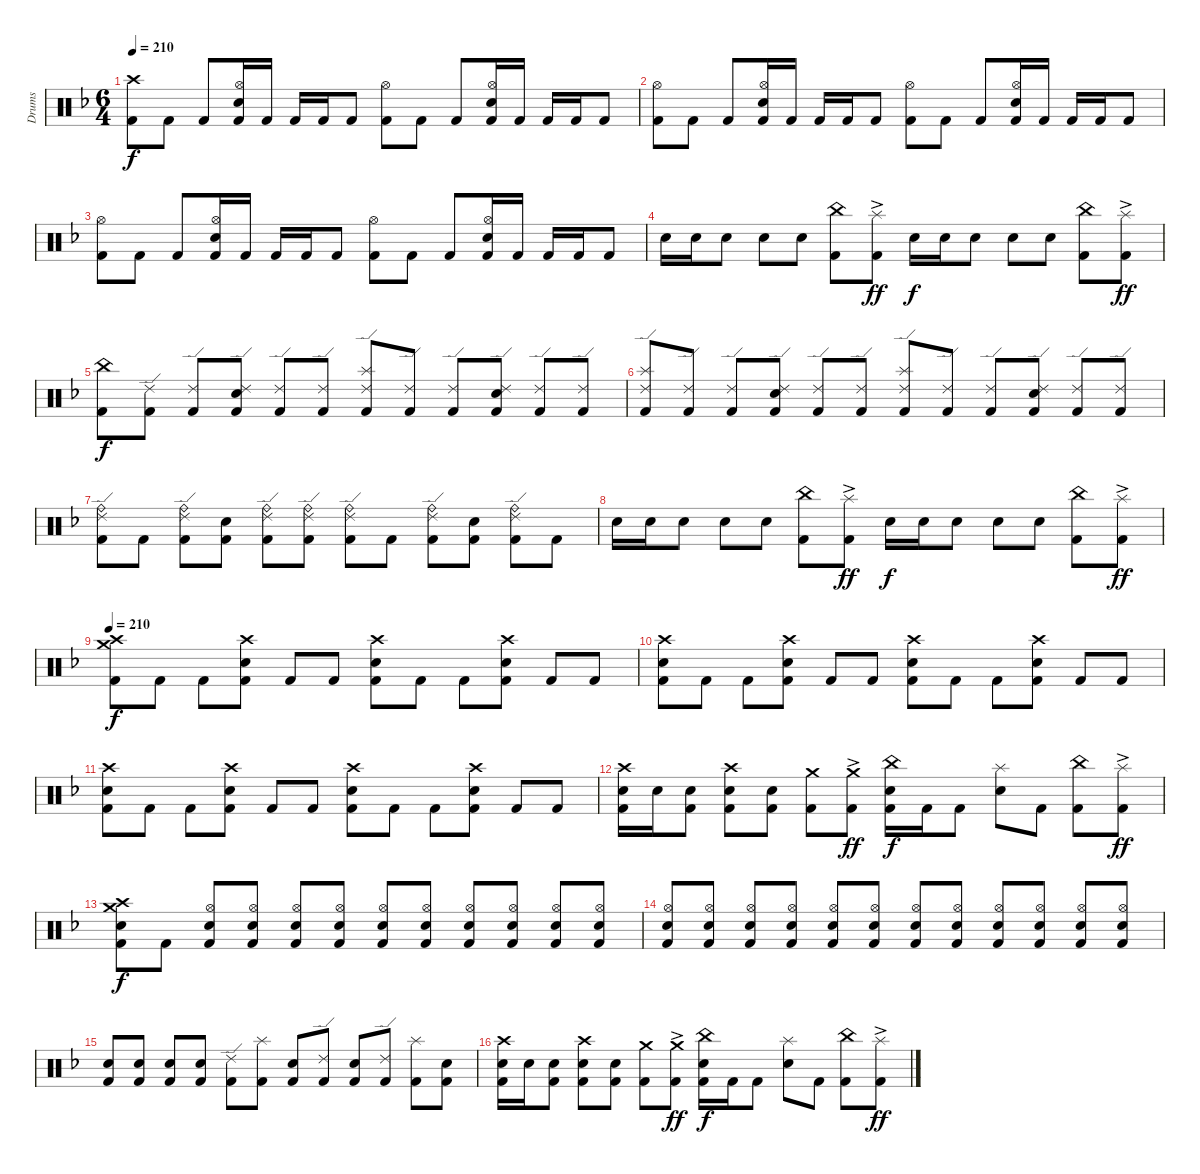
\track ("Drums" "Drums") {instrument percussion}
\staff {score}
\articulation defaults
\ts (6 4)
\tempo 210
\clef neutral
\ks f
("Crash high (hit)" "Kick (hit) 2").8{dy f} "Kick (hit) 2".8 "Kick (hit) 2".8 ("Hi-Hat (open)" "Electric Snare (hit)" "Kick (hit) 2").16 "Kick (hit) 2".16 "Kick (hit) 2".16 "Kick (hit) 2".16 "Kick (hit) 2".8 ("Hi-Hat (open)" "Kick (hit) 2").8 "Kick (hit) 2".8 "Kick (hit) 2".8 ("Hi-Hat (open)" "Electric Snare (hit)" "Kick (hit) 2").16 "Kick (hit) 2".16 "Kick (hit) 2".16 "Kick (hit) 2".16 "Kick (hit) 2".8 |
("Hi-Hat (open)" "Kick (hit) 2").8 "Kick (hit) 2".8 "Kick (hit) 2".8 ("Hi-Hat (open)" "Electric Snare (hit)" "Kick (hit) 2").16 "Kick (hit) 2".16 "Kick (hit) 2".16 "Kick (hit) 2".16 "Kick (hit) 2".8 ("Hi-Hat (open)" "Kick (hit) 2").8 "Kick (hit) 2".8 "Kick (hit) 2".8 ("Hi-Hat (open)" "Electric Snare (hit)" "Kick (hit) 2").16 "Kick (hit) 2".16 "Kick (hit) 2".16 "Kick (hit) 2".16 "Kick (hit) 2".8 |
("Hi-Hat (open)" "Kick (hit) 2").8 "Kick (hit) 2".8 "Kick (hit) 2".8 ("Hi-Hat (open)" "Electric Snare (hit)" "Kick (hit) 2").16 "Kick (hit) 2".16 "Kick (hit) 2".16 "Kick (hit) 2".16 "Kick (hit) 2".8 ("Hi-Hat (open)" "Kick (hit) 2").8 "Kick (hit) 2".8 "Kick (hit) 2".8 ("Hi-Hat (open)" "Electric Snare (hit)" "Kick (hit) 2").16 "Kick (hit) 2".16 "Kick (hit) 2".16 "Kick (hit) 2".16 "Kick (hit) 2".8 |
"Electric Snare (hit)".16 "Electric Snare (hit)".16 "Electric Snare (hit)".8 "Electric Snare (hit)".8 "Electric Snare (hit)".8 ("China (hit)" "Kick (hit) 2").8 ("Splash (hit)"{ac} "Kick (hit) 2").8{dy ff} "Electric Snare (hit)".16{dy f} "Electric Snare (hit)".16 "Electric Snare (hit)".8 "Electric Snare (hit)".8 "Electric Snare (hit)".8 ("China (hit)" "Kick (hit) 2").8 ("Splash (hit)"{ac} "Kick (hit) 2").8{dy ff} |
("China (hit)" "Kick (hit) 2").8{dy f} ("Ride (edge) 2" "Kick (hit) 2").8 ("Ride (edge) 2" "Kick (hit) 2").8 ("Ride (edge) 2" "Electric Snare (hit)" "Kick (hit) 2").8 ("Ride (edge) 2" "Kick (hit) 2").8 ("Ride (edge) 2" "Kick (hit) 2").8 ("Splash (hit)" "Ride (edge) 2" "Kick (hit) 2").8 ("Ride (edge) 2" "Kick (hit) 2").8 ("Ride (edge) 2" "Kick (hit) 2").8 ("Ride (edge) 2" "Electric Snare (hit)" "Kick (hit) 2").8 ("Ride (edge) 2" "Kick (hit) 2").8 ("Ride (edge) 2" "Kick (hit) 2").8 |
("Splash (hit)" "Ride (edge) 2" "Kick (hit) 2").8 ("Ride (edge) 2" "Kick (hit) 2").8 ("Ride (edge) 2" "Kick (hit) 2").8 ("Ride (edge) 2" "Electric Snare (hit)" "Kick (hit) 2").8 ("Ride (edge) 2" "Kick (hit) 2").8 ("Ride (edge) 2" "Kick (hit) 2").8 ("Splash (hit)" "Ride (edge) 2" "Kick (hit) 2").8 ("Ride (edge) 2" "Kick (hit) 2").8 ("Ride (edge) 2" "Kick (hit) 2").8 ("Ride (edge) 2" "Electric Snare (hit)" "Kick (hit) 2").8 ("Ride (edge) 2" "Kick (hit) 2").8 ("Ride (edge) 2" "Kick (hit) 2").8 |
("Ride (edge) 2" "Ride (bell)" "Kick (hit) 2").8 "Kick (hit) 2".8 ("Ride (edge) 2" "Ride (bell)" "Kick (hit) 2").8 ("Electric Snare (hit)" "Kick (hit) 2").8 ("Ride (edge) 2" "Ride (bell)" "Kick (hit) 2").8 ("Ride (edge) 2" "Ride (bell)" "Kick (hit) 2").8 ("Ride (edge) 2" "Ride (bell)" "Kick (hit) 2").8 "Kick (hit) 2".8 ("Ride (edge) 2" "Ride (bell)" "Kick (hit) 2").8 ("Electric Snare (hit)" "Kick (hit) 2").8 ("Ride (edge) 2" "Ride (bell)" "Kick (hit) 2").8 "Kick (hit) 2".8 |
"Electric Snare (hit)".16 "Electric Snare (hit)".16 "Electric Snare (hit)".8 "Electric Snare (hit)".8 "Electric Snare (hit)".8 ("China (hit)" "Kick (hit) 2").8 ("Splash (hit)"{ac} "Kick (hit) 2").8{dy ff} "Electric Snare (hit)".16{dy f} "Electric Snare (hit)".16 "Electric Snare (hit)".8 "Electric Snare (hit)".8 "Electric Snare (hit)".8 ("China (hit)" "Kick (hit) 2").8 ("Splash (hit)"{ac} "Kick (hit) 2").8{dy ff} |
\tempo 210
("Crash high (hit)" "Crash medium (hit)" "Kick (hit) 2").8{dy f} "Kick (hit) 2".8 "Kick (hit) 2".8 ("Crash high (hit)" "Electric Snare (hit)" "Kick (hit) 2").8 "Kick (hit) 2".8 "Kick (hit) 2".8 ("Crash high (hit)" "Electric Snare (hit)" "Kick (hit) 2").8 "Kick (hit) 2".8 "Kick (hit) 2".8 ("Crash high (hit)" "Electric Snare (hit)" "Kick (hit) 2").8 "Kick (hit) 2".8 "Kick (hit) 2".8 |
("Crash high (hit)" "Electric Snare (hit)" "Kick (hit) 2").8 "Kick (hit) 2".8 "Kick (hit) 2".8 ("Crash high (hit)" "Electric Snare (hit)" "Kick (hit) 2").8 "Kick (hit) 2".8 "Kick (hit) 2".8 ("Crash high (hit)" "Electric Snare (hit)" "Kick (hit) 2").8 "Kick (hit) 2".8 "Kick (hit) 2".8 ("Crash high (hit)" "Electric Snare (hit)" "Kick (hit) 2").8 "Kick (hit) 2".8 "Kick (hit) 2".8 |
("Crash high (hit)" "Electric Snare (hit)" "Kick (hit) 2").8 "Kick (hit) 2".8 "Kick (hit) 2".8 ("Crash high (hit)" "Electric Snare (hit)" "Kick (hit) 2").8 "Kick (hit) 2".8 "Kick (hit) 2".8 ("Crash high (hit)" "Electric Snare (hit)" "Kick (hit) 2").8 "Kick (hit) 2".8 "Kick (hit) 2".8 ("Crash high (hit)" "Electric Snare (hit)" "Kick (hit) 2").8 "Kick (hit) 2".8 "Kick (hit) 2".8 |
("Crash high (hit)" "Electric Snare (hit)" "Kick (hit) 2").16 "Electric Snare (hit)".16 ("Electric Snare (hit)" "Kick (hit) 2").8 ("Crash high (hit)" "Electric Snare (hit)" "Kick (hit) 2").8 ("Electric Snare (hit)" "Kick (hit) 2").8 ("Crash medium (hit)" "Kick (hit) 2").8 ("Crash medium (hit)"{ac} "Kick (hit) 2").8{dy ff} ("China (hit)" "Electric Snare (hit)" "Kick (hit) 2").16{dy f} "Kick (hit) 2".16 "Kick (hit) 2".8 ("Splash (hit)" "Electric Snare (hit)").8 "Kick (hit) 2".8 ("China (hit)" "Kick (hit) 2").8 ("Splash (hit)"{ac} "Kick (hit) 2").8{dy ff} |
("Crash medium (hit)" "Crash high (hit)" "Electric Snare (hit)" "Kick (hit) 2").8{dy f} "Kick (hit) 2".8 ("Hi-Hat (open)" "Electric Snare (hit)" "Kick (hit) 2").8 ("Hi-Hat (open)" "Electric Snare (hit)" "Kick (hit) 2").8 ("Hi-Hat (open)" "Electric Snare (hit)" "Kick (hit) 2").8 ("Hi-Hat (open)" "Electric Snare (hit)" "Kick (hit) 2").8 ("Hi-Hat (open)" "Electric Snare (hit)" "Kick (hit) 2").8 ("Hi-Hat (open)" "Electric Snare (hit)" "Kick (hit) 2").8 ("Hi-Hat (open)" "Electric Snare (hit)" "Kick (hit) 2").8 ("Hi-Hat (open)" "Electric Snare (hit)" "Kick (hit) 2").8 ("Hi-Hat (open)" "Electric Snare (hit)" "Kick (hit) 2").8 ("Hi-Hat (open)" "Electric Snare (hit)" "Kick (hit) 2").8 |
("Hi-Hat (open)" "Electric Snare (hit)" "Kick (hit) 2").8 ("Hi-Hat (open)" "Electric Snare (hit)" "Kick (hit) 2").8 ("Hi-Hat (open)" "Electric Snare (hit)" "Kick (hit) 2").8 ("Hi-Hat (open)" "Electric Snare (hit)" "Kick (hit) 2").8 ("Hi-Hat (open)" "Electric Snare (hit)" "Kick (hit) 2").8 ("Hi-Hat (open)" "Electric Snare (hit)" "Kick (hit) 2").8 ("Hi-Hat (open)" "Electric Snare (hit)" "Kick (hit) 2").8 ("Hi-Hat (open)" "Electric Snare (hit)" "Kick (hit) 2").8 ("Hi-Hat (open)" "Electric Snare (hit)" "Kick (hit) 2").8 ("Hi-Hat (open)" "Electric Snare (hit)" "Kick (hit) 2").8 ("Hi-Hat (open)" "Electric Snare (hit)" "Kick (hit) 2").8 ("Hi-Hat (open)" "Electric Snare (hit)" "Kick (hit) 2").8 |
("Electric Snare (hit)" "Kick (hit) 2").8 ("Electric Snare (hit)" "Kick (hit) 2").8 ("Electric Snare (hit)" "Kick (hit) 2").8 ("Electric Snare (hit)" "Kick (hit) 2").8 ("Ride (edge) 2" "Kick (hit) 2").8 ("Splash (hit)" "Kick (hit) 2").8 ("Electric Snare (hit)" "Kick (hit) 2").8 ("Ride (edge) 2" "Kick (hit) 2").8 ("Electric Snare (hit)" "Kick (hit) 2").8 ("Ride (edge) 2" "Kick (hit) 2").8 ("Splash (hit)" "Kick (hit) 2").8 ("Electric Snare (hit)" "Kick (hit) 2").8 |
("Crash high (hit)" "Electric Snare (hit)" "Kick (hit) 2").16 "Electric Snare (hit)".16 ("Electric Snare (hit)" "Kick (hit) 2").8 ("Crash high (hit)" "Electric Snare (hit)" "Kick (hit) 2").8 ("Electric Snare (hit)" "Kick (hit) 2").8 ("Crash medium (hit)" "Kick (hit) 2").8 ("Crash medium (hit)"{ac} "Kick (hit) 2").8{dy ff} ("China (hit)" "Electric Snare (hit)" "Kick (hit) 2").16{dy f} "Kick (hit) 2".16 "Kick (hit) 2".8 ("Splash (hit)" "Electric Snare (hit)").8 "Kick (hit) 2".8 ("China (hit)" "Kick (hit) 2").8 ("Splash (hit)"{ac} "Kick (hit) 2").8{dy ff}
